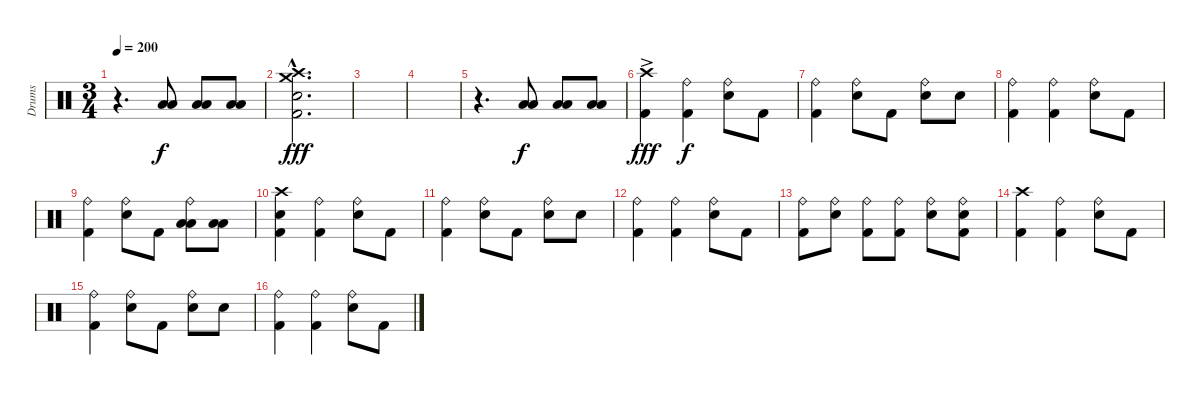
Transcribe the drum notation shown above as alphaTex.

\track ("Drums" "Drums") {instrument percussion}
\staff {score}
\articulation defaults
\ts (3 4)
\tempo 200
\clef neutral
\ks c
r.4{d dy fff} ("Low Tom (hit)" "Low Floor Tom (hit)").8{dy f} ("Low Tom (hit)" "Low Floor Tom (hit)").8 ("Low Tom (hit)" "Low Floor Tom (hit)").8 |
("Crash high (hit)"{hac} "Crash medium (hit)"{hac} "Snare (hit) 2"{hac} "Kick (hit) 2"{hac}).2{d dy fff} |
|
|
r.4{d} ("Low Tom (hit)" "Low Floor Tom (hit)").8{dy f} ("Low Tom (hit)" "Low Floor Tom (hit)").8 ("Low Tom (hit)" "Low Floor Tom (hit)").8 |
("Crash high (hit)"{ac} "Kick (hit) 2").4{dy fff} ("Ride (bell)" "Kick (hit) 2").4{dy f} ("Ride (bell)" "Snare (hit) 2").8 "Kick (hit) 2".8 |
("Ride (bell)" "Kick (hit) 2").4 ("Ride (bell)" "Snare (hit) 2").8 "Kick (hit) 2".8 ("Ride (bell)" "Snare (hit) 2").8 "Snare (hit) 2".8 |
("Ride (bell)" "Kick (hit) 2").4 ("Ride (bell)" "Kick (hit) 2").4 ("Ride (bell)" "Snare (hit) 2").8 "Kick (hit) 2".8 |
("Ride (bell)" "Kick (hit) 2").4 ("Ride (bell)" "Snare (hit) 2").8 "Kick (hit) 2".8 ("Ride (bell)" "Low Floor Tom (hit)" "Low Tom (hit)").8 ("Low Floor Tom (hit)" "Low Tom (hit)").8 |
("Crash high (hit)" "Snare (hit) 2" "Kick (hit) 2").4 ("Ride (bell)" "Kick (hit) 2").4 ("Ride (bell)" "Snare (hit) 2").8 "Kick (hit) 2".8 |
("Ride (bell)" "Kick (hit) 2").4 ("Ride (bell)" "Snare (hit) 2").8 "Kick (hit) 2".8 ("Ride (bell)" "Snare (hit) 2").8 "Snare (hit) 2".8 |
("Ride (bell)" "Kick (hit) 2").4 ("Ride (bell)" "Kick (hit) 2").4 ("Ride (bell)" "Snare (hit) 2").8 "Kick (hit) 2".8 |
("Ride (bell)" "Kick (hit) 2").8 ("Ride (bell)" "Snare (hit) 2").8 ("Ride (bell)" "Kick (hit) 2").8 ("Ride (bell)" "Kick (hit) 2").8 ("Ride (bell)" "Snare (hit) 2").8 ("Ride (bell)" "Snare (hit) 2" "Kick (hit) 2").8 |
("Crash high (hit)" "Kick (hit) 2").4 ("Ride (bell)" "Kick (hit) 2").4 ("Ride (bell)" "Snare (hit) 2").8 "Kick (hit) 2".8 |
("Ride (bell)" "Kick (hit) 2").4 ("Ride (bell)" "Snare (hit) 2").8 "Kick (hit) 2".8 ("Ride (bell)" "Snare (hit) 2").8 "Snare (hit) 2".8 |
("Ride (bell)" "Kick (hit) 2").4 ("Ride (bell)" "Kick (hit) 2").4 ("Ride (bell)" "Snare (hit) 2").8 "Kick (hit) 2".8
